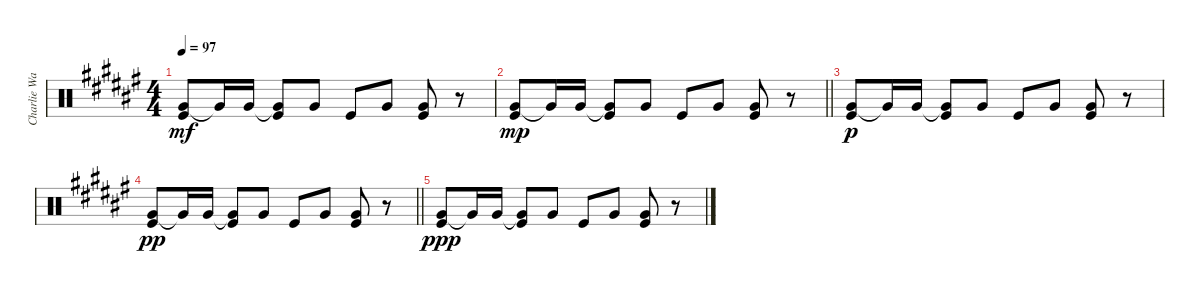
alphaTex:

\track ("Charlie Watts" "Charlie Wa") {instrument percussion}
\staff {score}
\articulation defaults
\ts (4 4)
\tempo 97
\clef neutral
\ks f#
("Very Low Tom (hit)" "Kick (hit)").8{dy mf} "Very Low Tom (hit)"{t}.16 "Very Low Tom (hit)".16 ("Very Low Tom (hit)"{t} "Kick (hit)").8 "Very Low Tom (hit)".8 "Kick (hit)".8 "Very Low Tom (hit)".8 ("Very Low Tom (hit)" "Kick (hit)").8 r.8 |
\barLineRight lightlight
("Very Low Tom (hit)" "Kick (hit)").8{dy mp} "Very Low Tom (hit)"{t}.16 "Very Low Tom (hit)".16 ("Very Low Tom (hit)"{t} "Kick (hit)").8 "Very Low Tom (hit)".8 "Kick (hit)".8 "Very Low Tom (hit)".8 ("Very Low Tom (hit)" "Kick (hit)").8 r.8 |
("Very Low Tom (hit)" "Kick (hit)").8{dy p} "Very Low Tom (hit)"{t}.16 "Very Low Tom (hit)".16 ("Very Low Tom (hit)"{t} "Kick (hit)").8 "Very Low Tom (hit)".8 "Kick (hit)".8 "Very Low Tom (hit)".8 ("Very Low Tom (hit)" "Kick (hit)").8 r.8 |
\barLineRight lightlight
("Very Low Tom (hit)" "Kick (hit)").8{dy pp} "Very Low Tom (hit)"{t}.16 "Very Low Tom (hit)".16 ("Very Low Tom (hit)"{t} "Kick (hit)").8 "Very Low Tom (hit)".8 "Kick (hit)".8 "Very Low Tom (hit)".8 ("Very Low Tom (hit)" "Kick (hit)").8 r.8 |
("Very Low Tom (hit)" "Kick (hit)").8{dy ppp} "Very Low Tom (hit)"{t}.16 "Very Low Tom (hit)".16 ("Very Low Tom (hit)"{t} "Kick (hit)").8 "Very Low Tom (hit)".8 "Kick (hit)".8 "Very Low Tom (hit)".8 ("Very Low Tom (hit)" "Kick (hit)").8 r.8
